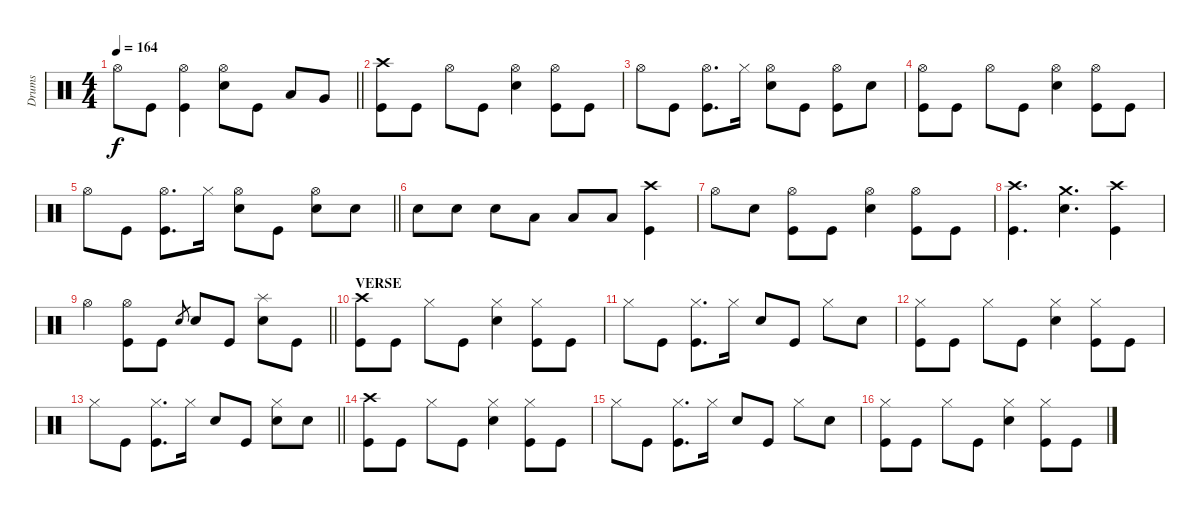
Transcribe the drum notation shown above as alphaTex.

\track ("Drums" "Drums") {instrument percussion}
\staff
\articulation defaults
\ts (4 4)
\tempo 164
\clef neutral
\barLineRight lightlight
\ks c "Hi-Hat (open)".8{dy f} "Kick (hit)".8
("Hi-Hat (open)" "Kick (hit)").4 ("Hi-Hat (open)" "Electric Snare (hit)").8 "Kick (hit)".8 "Low Tom (hit)".8 "Very Low Tom (hit)".8 |
("Crash high (hit)" "Kick (hit)").8 "Kick (hit)".8 "Hi-Hat (open)".8 "Kick (hit)".8 ("Hi-Hat (open)" "Electric Snare (hit)").4 ("Hi-Hat (open)" "Kick (hit)").8 "Kick (hit)".8 |
"Hi-Hat (open)".8 "Kick (hit)".8 ("Hi-Hat (open)" "Kick (hit)").8{d} "Hi-Hat (closed)".16 ("Hi-Hat (open)" "Electric Snare (hit)").8 "Kick (hit)".8 ("Hi-Hat (open)" "Kick (hit)").8 "Electric Snare (hit)".8 |
("Hi-Hat (open)" "Kick (hit)").8 "Kick (hit)".8 "Hi-Hat (open)".8 "Kick (hit)".8 ("Hi-Hat (open)" "Electric Snare (hit)").4 ("Hi-Hat (open)" "Kick (hit)").8 "Kick (hit)".8 |
\barLineRight lightlight "Hi-Hat (open)".8 "Kick (hit)".8
("Hi-Hat (open)" "Kick (hit)").8{d} "Hi-Hat (closed)".16 ("Hi-Hat (open)" "Electric Snare (hit)").8 "Kick (hit)".8 ("Hi-Hat (open)" "Electric Snare (hit)").8 "Electric Snare (hit)".8 |
"Electric Snare (hit)".8 "Electric Snare (hit)".8 "Electric Snare (hit)".8 "Low Tom (hit)".8 "Low Tom (hit)".8 "Low Floor Tom (hit)".8 ("Crash high (hit)" "Kick (hit)").4 |
"Hi-Hat (open)".8 "Electric Snare (hit)".8 ("Hi-Hat (open)" "Kick (hit)").8 "Kick (hit)".8 ("Hi-Hat (open)" "Electric Snare (hit)").4 ("Hi-Hat (open)" "Kick (hit)").8 "Kick (hit)".8 |
("Crash high (hit)" "Kick (hit)").4{d} ("Crash medium (hit)" "Electric Snare (hit)").4{d} ("Crash high (hit)" "Kick (hit)").4 |
\barLineRight lightlight "Hi-Hat (open)".4
("Hi-Hat (open)" "Kick (hit)").8 "Kick (hit)".8 "Electric Snare (hit)".8{gr} "Electric Snare (hit)".8 "Kick (hit)".8 ("Splash (hit)" "Electric Snare (hit)").8 "Kick (hit)".8 |
\section ("" "VERSE")
("Crash high (hit)" "Kick (hit)").8 "Kick (hit)".8 "Hi-Hat (closed)".8 "Kick (hit)".8 ("Hi-Hat (closed)" "Electric Snare (hit)").4 ("Hi-Hat (closed)" "Kick (hit)").8 "Kick (hit)".8 |
"Hi-Hat (closed)".8 "Kick (hit)".8 ("Hi-Hat (closed)" "Kick (hit)").8{d} "Hi-Hat (closed)".16 "Electric Snare (hit)".8 "Kick (hit)".8 "Hi-Hat (closed)".8 "Electric Snare (hit)".8 |
("Hi-Hat (closed)" "Kick (hit)").8 "Kick (hit)".8 "Hi-Hat (closed)".8 "Kick (hit)".8 ("Hi-Hat (closed)" "Electric Snare (hit)").4 ("Hi-Hat (closed)" "Kick (hit)").8 "Kick (hit)".8 |
\barLineRight lightlight "Hi-Hat (closed)".8 "Kick (hit)".8
("Hi-Hat (closed)" "Kick (hit)").8{d} "Hi-Hat (closed)".16 "Electric Snare (hit)".8 "Kick (hit)".8 ("Hi-Hat (closed)" "Electric Snare (hit)").8 "Electric Snare (hit)".8 |
("Crash high (hit)" "Kick (hit)").8 "Kick (hit)".8 "Hi-Hat (closed)".8 "Kick (hit)".8 ("Hi-Hat (closed)" "Electric Snare (hit)").4 ("Hi-Hat (closed)" "Kick (hit)").8 "Kick (hit)".8 |
"Hi-Hat (closed)".8 "Kick (hit)".8 ("Hi-Hat (closed)" "Kick (hit)").8{d} "Hi-Hat (closed)".16 "Electric Snare (hit)".8 "Kick (hit)".8 "Hi-Hat (closed)".8 "Electric Snare (hit)".8 |
("Hi-Hat (closed)" "Kick (hit)").8 "Kick (hit)".8 "Hi-Hat (closed)".8 "Kick (hit)".8 ("Hi-Hat (closed)" "Electric Snare (hit)").4 ("Hi-Hat (closed)" "Kick (hit)").8 "Kick (hit)".8
